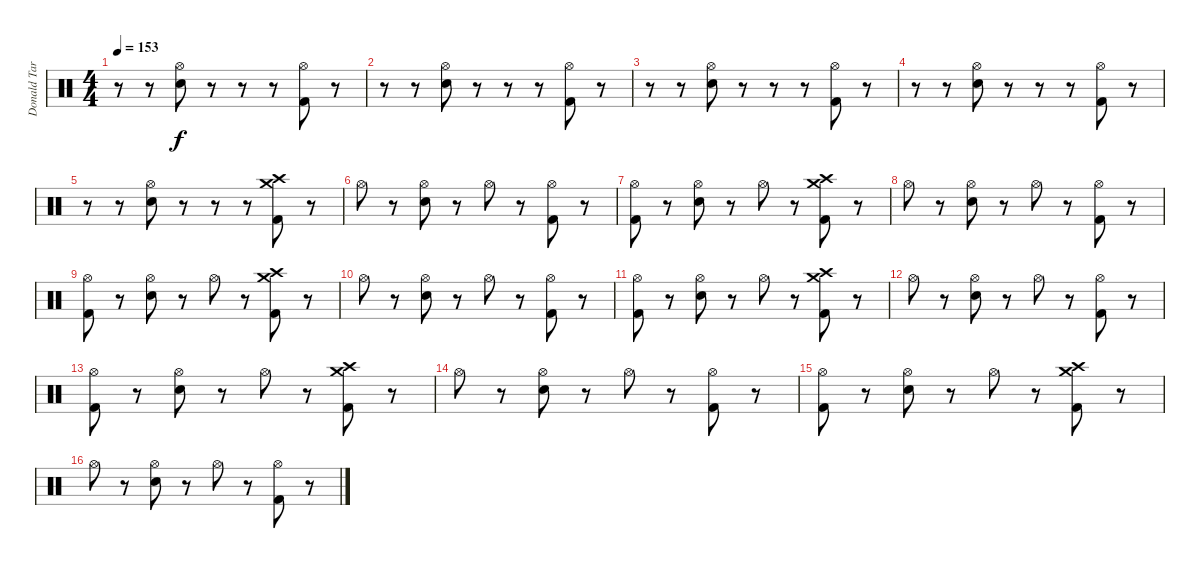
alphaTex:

\track ("Donald Tardy (Drums)" "Donald Tar") {instrument percussion}
\staff {score}
\articulation defaults
\ts (4 4)
\tempo 153
\clef neutral
\ks c
r.8{dy f} r.8 ("Electric Snare (hit)" "Hi-Hat (open)").8 r.8 r.8 r.8 ("Kick (hit) 2" "Hi-Hat (open)").8 r.8 |
r.8 r.8 ("Electric Snare (hit)" "Hi-Hat (open)").8 r.8 r.8 r.8 ("Kick (hit) 2" "Hi-Hat (open)").8 r.8 |
r.8 r.8 ("Electric Snare (hit)" "Hi-Hat (open)").8 r.8 r.8 r.8 ("Kick (hit) 2" "Hi-Hat (open)").8 r.8 |
r.8 r.8 ("Electric Snare (hit)" "Hi-Hat (open)").8 r.8 r.8 r.8 ("Kick (hit) 2" "Hi-Hat (open)").8 r.8 |
r.8 r.8 ("Electric Snare (hit)" "Hi-Hat (open)").8 r.8 r.8 r.8 ("Kick (hit) 2" "Crash high (hit)" "Crash medium (hit)").8 r.8 |
"Hi-Hat (open)".8 r.8 ("Electric Snare (hit)" "Hi-Hat (open)").8 r.8 "Hi-Hat (open)".8 r.8 ("Kick (hit) 2" "Hi-Hat (open)").8 r.8 |
("Kick (hit) 2" "Hi-Hat (open)").8 r.8 ("Electric Snare (hit)" "Hi-Hat (open)").8 r.8 "Hi-Hat (open)".8 r.8 ("Kick (hit) 2" "Crash medium (hit)" "Crash high (hit)").8 r.8 |
"Hi-Hat (open)".8 r.8 ("Electric Snare (hit)" "Hi-Hat (open)").8 r.8 "Hi-Hat (open)".8 r.8 ("Kick (hit) 2" "Hi-Hat (open)").8 r.8 |
("Kick (hit) 2" "Hi-Hat (open)").8 r.8 ("Electric Snare (hit)" "Hi-Hat (open)").8 r.8 "Hi-Hat (open)".8 r.8 ("Kick (hit) 2" "Crash medium (hit)" "Crash high (hit)").8 r.8 |
"Hi-Hat (open)".8 r.8 ("Electric Snare (hit)" "Hi-Hat (open)").8 r.8 "Hi-Hat (open)".8 r.8 ("Kick (hit) 2" "Hi-Hat (open)").8 r.8 |
("Kick (hit) 2" "Hi-Hat (open)").8 r.8 ("Electric Snare (hit)" "Hi-Hat (open)").8 r.8 "Hi-Hat (open)".8 r.8 ("Kick (hit) 2" "Crash medium (hit)" "Crash high (hit)").8 r.8 |
"Hi-Hat (open)".8 r.8 ("Electric Snare (hit)" "Hi-Hat (open)").8 r.8 "Hi-Hat (open)".8 r.8 ("Kick (hit) 2" "Hi-Hat (open)").8 r.8 |
("Kick (hit) 2" "Hi-Hat (open)").8 r.8 ("Electric Snare (hit)" "Hi-Hat (open)").8 r.8 "Hi-Hat (open)".8 r.8 ("Kick (hit) 2" "Crash medium (hit)" "Crash high (hit)").8 r.8 |
"Hi-Hat (open)".8 r.8 ("Electric Snare (hit)" "Hi-Hat (open)").8 r.8 "Hi-Hat (open)".8 r.8 ("Kick (hit) 2" "Hi-Hat (open)").8 r.8 |
("Kick (hit) 2" "Hi-Hat (open)").8 r.8 ("Electric Snare (hit)" "Hi-Hat (open)").8 r.8 "Hi-Hat (open)".8 r.8 ("Kick (hit) 2" "Crash medium (hit)" "Crash high (hit)").8 r.8 |
"Hi-Hat (open)".8 r.8 ("Electric Snare (hit)" "Hi-Hat (open)").8 r.8 "Hi-Hat (open)".8 r.8 ("Kick (hit) 2" "Hi-Hat (open)").8 r.8
